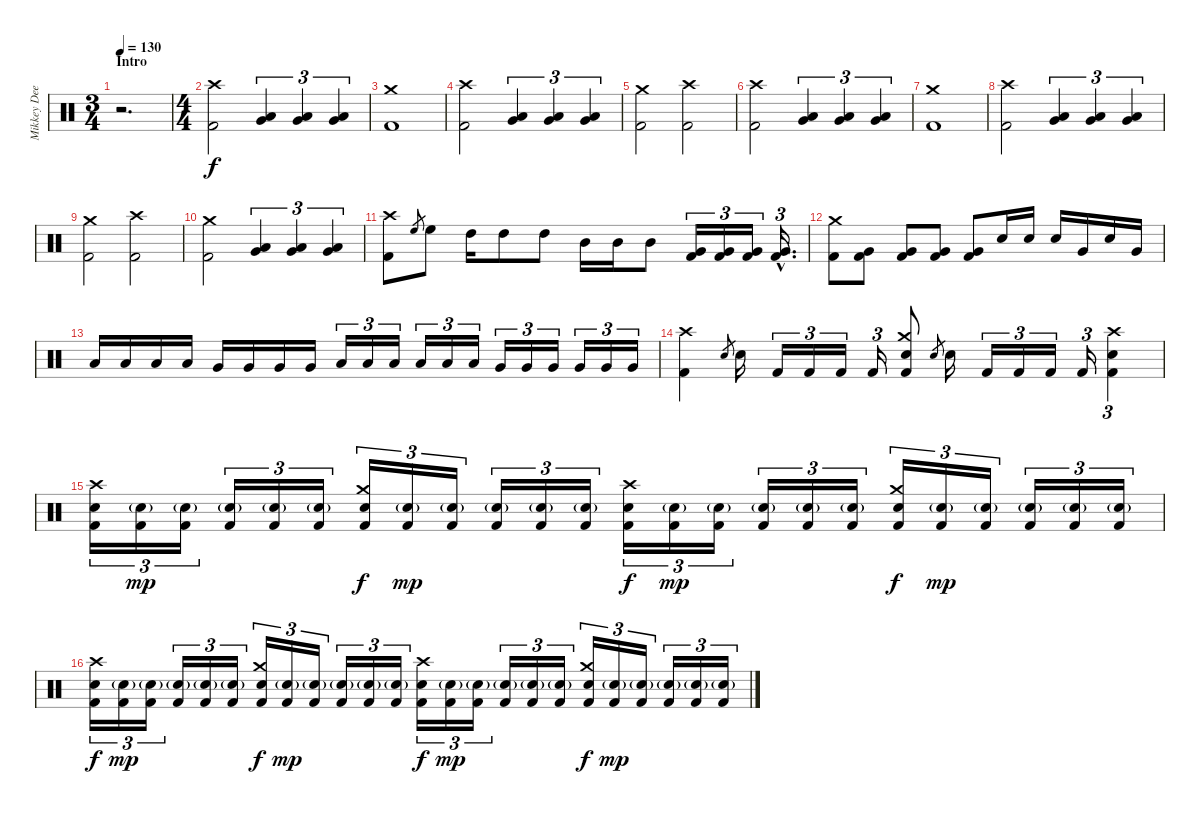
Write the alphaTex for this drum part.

\track ("Mikkey Dee" "Mikkey Dee") {instrument percussion}
\staff {score}
\articulation defaults
\ts (3 4)
\section ("" "Intro")
\tempo 130
\clef neutral
\ks c
r.2{d dy f} |
\ts (4 4)
("Crash high (hit)" "Kick (hit) 2").2 ("Very Low Tom (hit)" "Low Floor Tom (hit)").4{tu (3 2)} ("Very Low Tom (hit)" "Low Floor Tom (hit)").4{tu (3 2)} ("Very Low Tom (hit)" "Low Floor Tom (hit)").4{tu (3 2)} |
("Crash medium (hit)" "Kick (hit) 2").1 |
("Crash high (hit)" "Kick (hit) 2").2 ("Very Low Tom (hit)" "Low Floor Tom (hit)").4{tu (3 2)} ("Very Low Tom (hit)" "Low Floor Tom (hit)").4{tu (3 2)} ("Very Low Tom (hit)" "Low Floor Tom (hit)").4{tu (3 2)} |
("Crash medium (hit)" "Kick (hit) 2").2 ("Crash high (hit)" "Kick (hit) 2").2 |
("Crash high (hit)" "Kick (hit) 2").2 ("Very Low Tom (hit)" "Low Floor Tom (hit)").4{tu (3 2)} ("Very Low Tom (hit)" "Low Floor Tom (hit)").4{tu (3 2)} ("Very Low Tom (hit)" "Low Floor Tom (hit)").4{tu (3 2)} |
("Crash medium (hit)" "Kick (hit) 2").1 |
("Crash high (hit)" "Kick (hit) 2").2 ("Very Low Tom (hit)" "Low Floor Tom (hit)").4{tu (3 2)} ("Very Low Tom (hit)" "Low Floor Tom (hit)").4{tu (3 2)} ("Very Low Tom (hit)" "Low Floor Tom (hit)").4{tu (3 2)} |
("Crash medium (hit)" "Kick (hit) 2").2 ("Crash high (hit)" "Kick (hit) 2").2 |
("Crash medium (hit)" "Kick (hit) 2").2 ("Very Low Tom (hit)" "Low Floor Tom (hit)").4{tu (3 2)} ("Very Low Tom (hit)" "Low Floor Tom (hit)").4{tu (3 2)} ("Very Low Tom (hit)" "Low Floor Tom (hit)").4{tu (3 2)} |
("Crash high (hit)" "Kick (hit) 2").8 "High Floor Tom (hit)".8{gr} "High Floor Tom (hit)".8 "High Tom (hit)".16 "High Tom (hit)".8 "High Tom (hit)".8 "Mid Tom (hit)".16 "Mid Tom (hit)".16 "Mid Tom (hit)".8 ("Very Low Tom (hit)" "Kick (hit) 2").16{tu (3 2)} ("Very Low Tom (hit)" "Kick (hit) 2").16{tu (3 2)} ("Very Low Tom (hit)" "Kick (hit) 2").16{tu (3 2)} ("Very Low Tom (hit)"{hac} "Kick (hit) 2"{hac}).16{d tu (3 2)} |
("Crash medium (hit)" "Kick (hit) 2").8 ("Very Low Tom (hit)" "Kick (hit) 2").8 ("Very Low Tom (hit)" "Kick (hit) 2").8 ("Very Low Tom (hit)" "Kick (hit) 2").8 ("Very Low Tom (hit)" "Kick (hit) 2").8 "Snare (hit) 2".16 "Snare (hit) 2".16 "Snare (hit) 2".16 "Very Low Tom (hit)".16 "Snare (hit) 2".16 "Very Low Tom (hit)".16 |
"Low Tom (hit)".16 "Low Tom (hit)".16 "Low Tom (hit)".16 "Low Tom (hit)".16 "Very Low Tom (hit)".16 "Very Low Tom (hit)".16 "Very Low Tom (hit)".16 "Very Low Tom (hit)".16 "Low Tom (hit)".16{tu (3 2)} "Low Tom (hit)".16{tu (3 2)} "Low Tom (hit)".16{tu (3 2)} "Low Tom (hit)".16{tu (3 2)} "Low Tom (hit)".16{tu (3 2)} "Low Tom (hit)".16{tu (3 2)} "Very Low Tom (hit)".16{tu (3 2)} "Very Low Tom (hit)".16{tu (3 2)} "Very Low Tom (hit)".16{tu (3 2)} "Very Low Tom (hit)".16{tu (3 2)} "Very Low Tom (hit)".16{tu (3 2)} "Very Low Tom (hit)".16{tu (3 2)} |
("Crash high (hit)" "Kick (hit) 2").4 "Snare (hit) 2".8{gr} "Snare (hit) 2".16 "Kick (hit) 2".16{tu (3 2)} "Kick (hit) 2".16{tu (3 2)} "Kick (hit) 2".16{tu (3 2)} "Kick (hit) 2".16{tu (3 2)} ("Crash medium (hit)" "Snare (hit) 2" "Kick (hit) 2").8 "Snare (hit) 2".8{gr} "Snare (hit) 2".16 "Kick (hit) 2".16{tu (3 2)} "Kick (hit) 2".16{tu (3 2)} "Kick (hit) 2".16{tu (3 2)} "Kick (hit) 2".16{tu (3 2)} ("Crash high (hit)" "Snare (hit) 2" "Kick (hit) 2").4{tu (3 2)} |
("Crash high (hit)" "Snare (hit) 2" "Kick (hit) 2").16{tu (3 2)} ("Snare (hit) 2"{g} "Kick (hit) 2").16{tu (3 2) dy mp} ("Snare (hit) 2"{g} "Kick (hit) 2").16{tu (3 2)} ("Snare (hit) 2"{g} "Kick (hit) 2").16{tu (3 2)} ("Snare (hit) 2"{g} "Kick (hit) 2").16{tu (3 2)} ("Snare (hit) 2"{g} "Kick (hit) 2").16{tu (3 2)} ("Crash medium (hit)" "Snare (hit) 2" "Kick (hit) 2").16{tu (3 2) dy f} ("Snare (hit) 2"{g} "Kick (hit) 2").16{tu (3 2) dy mp} ("Snare (hit) 2"{g} "Kick (hit) 2").16{tu (3 2)} ("Snare (hit) 2"{g} "Kick (hit) 2").16{tu (3 2)} ("Snare (hit) 2"{g} "Kick (hit) 2").16{tu (3 2)} ("Snare (hit) 2"{g} "Kick (hit) 2").16{tu (3 2)} ("Crash high (hit)" "Snare (hit) 2" "Kick (hit) 2").16{tu (3 2) dy f} ("Snare (hit) 2"{g} "Kick (hit) 2").16{tu (3 2) dy mp} ("Snare (hit) 2"{g} "Kick (hit) 2").16{tu (3 2)} ("Snare (hit) 2"{g} "Kick (hit) 2").16{tu (3 2)} ("Snare (hit) 2"{g} "Kick (hit) 2").16{tu (3 2)} ("Snare (hit) 2"{g} "Kick (hit) 2").16{tu (3 2)} ("Crash medium (hit)" "Snare (hit) 2" "Kick (hit) 2").16{tu (3 2) dy f} ("Snare (hit) 2"{g} "Kick (hit) 2").16{tu (3 2) dy mp} ("Snare (hit) 2"{g} "Kick (hit) 2").16{tu (3 2)} ("Snare (hit) 2"{g} "Kick (hit) 2").16{tu (3 2)} ("Snare (hit) 2"{g} "Kick (hit) 2").16{tu (3 2)} ("Snare (hit) 2"{g} "Kick (hit) 2").16{tu (3 2)} |
("Crash high (hit)" "Snare (hit) 2" "Kick (hit) 2").16{tu (3 2) dy f} ("Snare (hit) 2"{g} "Kick (hit) 2").16{tu (3 2) dy mp} ("Snare (hit) 2"{g} "Kick (hit) 2").16{tu (3 2)} ("Snare (hit) 2"{g} "Kick (hit) 2").16{tu (3 2)} ("Snare (hit) 2"{g} "Kick (hit) 2").16{tu (3 2)} ("Snare (hit) 2"{g} "Kick (hit) 2").16{tu (3 2)} ("Crash medium (hit)" "Snare (hit) 2" "Kick (hit) 2").16{tu (3 2) dy f} ("Snare (hit) 2"{g} "Kick (hit) 2").16{tu (3 2) dy mp} ("Snare (hit) 2"{g} "Kick (hit) 2").16{tu (3 2)} ("Snare (hit) 2"{g} "Kick (hit) 2").16{tu (3 2)} ("Snare (hit) 2"{g} "Kick (hit) 2").16{tu (3 2)} ("Snare (hit) 2"{g} "Kick (hit) 2").16{tu (3 2)} ("Crash high (hit)" "Snare (hit) 2" "Kick (hit) 2").16{tu (3 2) dy f} ("Snare (hit) 2"{g} "Kick (hit) 2").16{tu (3 2) dy mp} ("Snare (hit) 2"{g} "Kick (hit) 2").16{tu (3 2)} ("Snare (hit) 2"{g} "Kick (hit) 2").16{tu (3 2)} ("Snare (hit) 2"{g} "Kick (hit) 2").16{tu (3 2)} ("Snare (hit) 2"{g} "Kick (hit) 2").16{tu (3 2)} ("Crash medium (hit)" "Snare (hit) 2" "Kick (hit) 2").16{tu (3 2) dy f} ("Snare (hit) 2"{g} "Kick (hit) 2").16{tu (3 2) dy mp} ("Snare (hit) 2"{g} "Kick (hit) 2").16{tu (3 2)} ("Snare (hit) 2"{g} "Kick (hit) 2").16{tu (3 2)} ("Snare (hit) 2"{g} "Kick (hit) 2").16{tu (3 2)} ("Snare (hit) 2"{g} "Kick (hit) 2").16{tu (3 2)}
